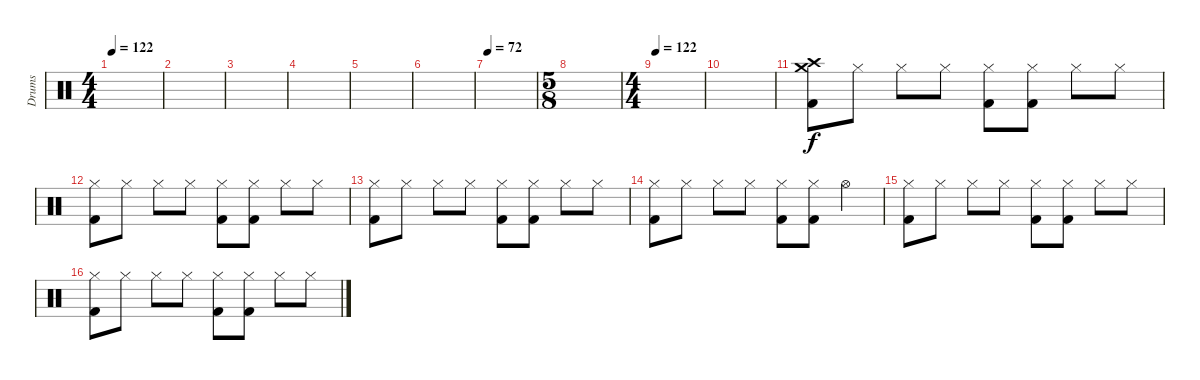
\track ("Drums" "Drums") {instrument percussion}
\staff {score}
\articulation defaults
\ts (4 4)
\tempo 122
\clef neutral
\ks c
|
|
|
|
|
|
\tempo 72
|
\ts (5 8)
|
\ts (4 4)
\tempo 122
|
|
("Crash medium (hit)" "Crash high (hit)" "Kick (hit) 2").8 "Hi-Hat (closed)".8 "Hi-Hat (closed)".8 "Hi-Hat (closed)".8 ("Hi-Hat (closed)" "Kick (hit) 2").8 ("Hi-Hat (closed)" "Kick (hit) 2").8 "Hi-Hat (closed)".8 "Hi-Hat (closed)".8 |
("Hi-Hat (closed)" "Kick (hit) 2").8 "Hi-Hat (closed)".8 "Hi-Hat (closed)".8 "Hi-Hat (closed)".8 ("Hi-Hat (closed)" "Kick (hit) 2").8 ("Hi-Hat (closed)" "Kick (hit) 2").8 "Hi-Hat (closed)".8 "Hi-Hat (closed)".8 |
("Hi-Hat (closed)" "Kick (hit) 2").8 "Hi-Hat (closed)".8 "Hi-Hat (closed)".8 "Hi-Hat (closed)".8 ("Hi-Hat (closed)" "Kick (hit) 2").8 ("Hi-Hat (closed)" "Kick (hit) 2").8 "Hi-Hat (closed)".8 "Hi-Hat (closed)".8 |
("Hi-Hat (closed)" "Kick (hit) 2").8 "Hi-Hat (closed)".8 "Hi-Hat (closed)".8 "Hi-Hat (closed)".8 ("Hi-Hat (closed)" "Kick (hit) 2").8 ("Hi-Hat (closed)" "Kick (hit) 2").8 "Hi-Hat (open)".4 |
("Hi-Hat (closed)" "Kick (hit) 2").8 "Hi-Hat (closed)".8 "Hi-Hat (closed)".8 "Hi-Hat (closed)".8 ("Hi-Hat (closed)" "Kick (hit) 2").8 ("Hi-Hat (closed)" "Kick (hit) 2").8 "Hi-Hat (closed)".8 "Hi-Hat (closed)".8 |
("Hi-Hat (closed)" "Kick (hit) 2").8 "Hi-Hat (closed)".8 "Hi-Hat (closed)".8 "Hi-Hat (closed)".8 ("Hi-Hat (closed)" "Kick (hit) 2").8 ("Hi-Hat (closed)" "Kick (hit) 2").8 "Hi-Hat (closed)".8 "Hi-Hat (closed)".8
